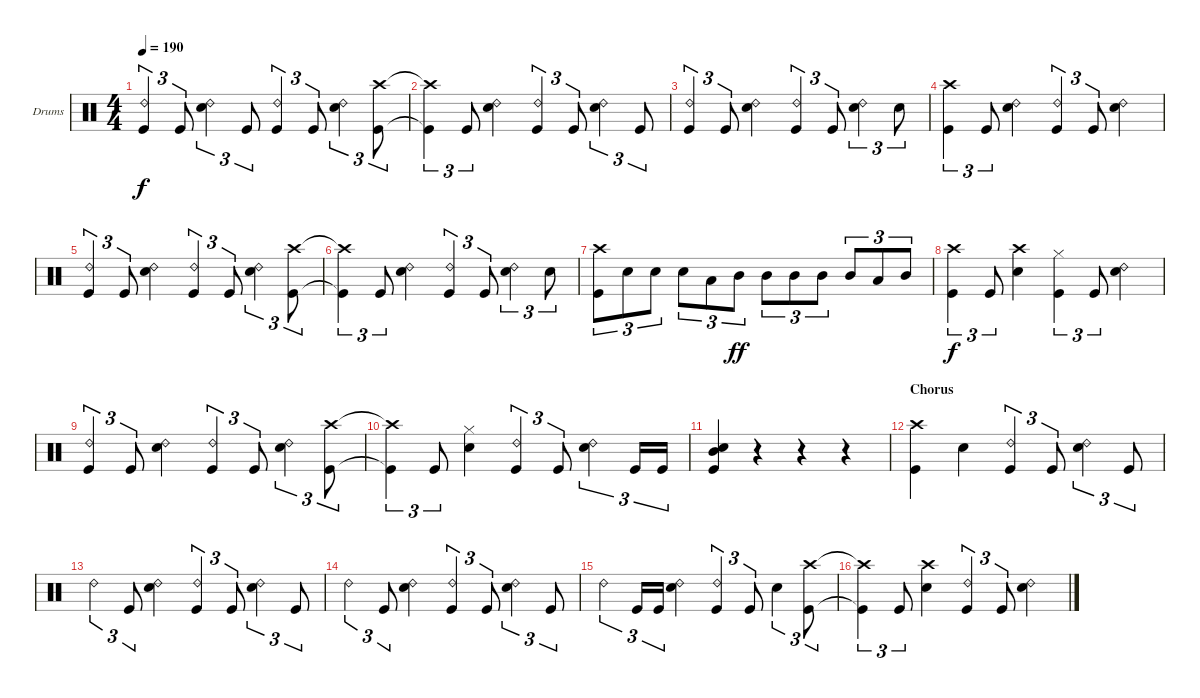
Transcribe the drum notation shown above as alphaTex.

\bracketExtendMode groupsimilarinstruments
\firstSystemTrackNameOrientation horizontal
\otherSystemsTrackNameOrientation horizontal
\track ("Drums" "Drums") {instrument percussion}
\staff {score}
\articulation defaults
\ts (4 4)
\tempo 190
\clef neutral
\ks c
("Kick (hit)" "Ride (bell) 2").4{tu (3 2) dy f} "Kick (hit)".8{tu (3 2)} ("Snare (hit) 2" "Ride (bell) 2").4{tu (3 2)} "Kick (hit)".8{tu (3 2)} ("Kick (hit)" "Ride (bell) 2").4{tu (3 2)} "Kick (hit)".8{tu (3 2)} ("Snare (hit) 2" "Ride (bell) 2").4{tu (3 2)} ("Kick (hit)" "Crash high (hit)").8{tu (3 2)} |
("Kick (hit)"{t} "Crash high (hit)"{t}).4{tu (3 2)} "Kick (hit)".8{tu (3 2)} ("Snare (hit) 2" "Ride (bell) 2").4 ("Kick (hit)" "Ride (bell) 2").4{tu (3 2)} "Kick (hit)".8{tu (3 2)} ("Snare (hit) 2" "Ride (bell) 2").4{tu (3 2)} "Kick (hit)".8{tu (3 2)} |
("Kick (hit)" "Ride (bell) 2").4{tu (3 2)} "Kick (hit)".8{tu (3 2)} ("Snare (hit) 2" "Ride (bell) 2").4 ("Kick (hit)" "Ride (bell) 2").4{tu (3 2)} "Kick (hit)".8{tu (3 2)} ("Snare (hit) 2" "Ride (bell) 2").4{tu (3 2)} "Snare (hit) 2".8{tu (3 2)} |
("Crash high (hit)" "Kick (hit)").4{tu (3 2)} "Kick (hit)".8{tu (3 2)} ("Snare (hit) 2" "Ride (bell) 2").4 ("Kick (hit)" "Ride (bell) 2").4{tu (3 2)} "Kick (hit)".8{tu (3 2)} ("Snare (hit) 2" "Ride (bell) 2").4 |
("Kick (hit)" "Ride (bell) 2").4{tu (3 2)} "Kick (hit)".8{tu (3 2)} ("Snare (hit) 2" "Ride (bell) 2").4 ("Kick (hit)" "Ride (bell) 2").4{tu (3 2)} "Kick (hit)".8{tu (3 2)} ("Snare (hit) 2" "Ride (bell) 2").4{tu (3 2)} ("Kick (hit)" "Crash high (hit)").8{tu (3 2)} |
("Kick (hit)"{t} "Crash high (hit)"{t}).4{tu (3 2)} "Kick (hit)".8{tu (3 2)} ("Snare (hit) 2" "Ride (bell) 2").4 ("Kick (hit)" "Ride (bell) 2").4{tu (3 2)} "Kick (hit)".8{tu (3 2)} ("Snare (hit) 2" "Ride (bell) 2").4{tu (3 2)} "Snare (hit) 2".8{tu (3 2)} |
("Kick (hit)" "Crash high (hit)").8{tu (3 2)} "Snare (hit) 2".8{tu (3 2)} "Snare (hit) 2".8{tu (3 2)} "Snare (hit) 2".8{tu (3 2)} "Low Tom (hit)".8{tu (3 2)} "Mid Tom (hit)".8{tu (3 2) dy ff} "Mid Tom (hit)".8{tu (3 2)} "Mid Tom (hit)".8{tu (3 2)} "Mid Tom (hit)".8{tu (3 2)} "Mid Tom (hit)".8{tu (3 2)} "Low Tom (hit)".8{tu (3 2)} "Mid Tom (hit)".8{tu (3 2)} |
("Crash high (hit)" "Kick (hit)").4{tu (3 2) dy f} "Kick (hit)".8{tu (3 2)} ("Snare (hit) 2" "Crash high (hit)").4 ("Kick (hit)" "Hi-Hat (closed)").4{tu (3 2)} "Kick (hit)".8{tu (3 2)} ("Snare (hit) 2" "Ride (bell) 2").4 |
("Kick (hit)" "Ride (bell) 2").4{tu (3 2)} "Kick (hit)".8{tu (3 2)} ("Snare (hit) 2" "Ride (bell) 2").4 ("Kick (hit)" "Ride (bell) 2").4{tu (3 2)} "Kick (hit)".8{tu (3 2)} ("Snare (hit) 2" "Ride (bell) 2").4{tu (3 2)} ("Kick (hit)" "Crash high (hit)").8{tu (3 2)} |
("Kick (hit)"{t} "Crash high (hit)"{t}).4{tu (3 2)} "Kick (hit)".8{tu (3 2)} ("Snare (hit) 2" "Hi-Hat (closed)").4 ("Kick (hit)" "Ride (bell) 2").4{tu (3 2)} "Kick (hit)".8{tu (3 2)} ("Snare (hit) 2" "Ride (bell) 2").4{tu (3 2)} "Kick (hit)".16{tu (3 2)} "Kick (hit)".16{tu (3 2)} |
("Kick (hit)" "Snare (hit) 2" "Mid Tom (hit)").4 r.4 r.4 r.4 |
\section ("" "Chorus")
("Kick (hit)" "Crash high (hit)").4 "Snare (hit) 2".4 ("Kick (hit)" "Ride (bell) 2").4{tu (3 2)} "Kick (hit)".8{tu (3 2)} ("Snare (hit) 2" "Ride (bell) 2").4{tu (3 2)} "Kick (hit)".8{tu (3 2)} |
"Ride (bell) 2".4{tu (3 2)} "Kick (hit)".8{tu (3 2)} ("Snare (hit) 2" "Ride (bell) 2").4 ("Kick (hit)" "Ride (bell) 2").4{tu (3 2)} "Kick (hit)".8{tu (3 2)} ("Snare (hit) 2" "Ride (bell) 2").4{tu (3 2)} "Kick (hit)".8{tu (3 2)} |
"Ride (bell) 2".4{tu (3 2)} "Kick (hit)".8{tu (3 2)} ("Snare (hit) 2" "Ride (bell) 2").4 ("Kick (hit)" "Ride (bell) 2").4{tu (3 2)} "Kick (hit)".8{tu (3 2)} ("Snare (hit) 2" "Ride (bell) 2").4{tu (3 2)} "Kick (hit)".8{tu (3 2)} |
"Ride (bell) 2".4{tu (3 2)} "Kick (hit)".16{tu (3 2)} "Kick (hit)".16{tu (3 2)} ("Snare (hit) 2" "Ride (bell) 2").4 ("Kick (hit)" "Ride (bell) 2").4{tu (3 2)} "Kick (hit)".8{tu (3 2)} "Snare (hit) 2".4{tu (3 2)} ("Kick (hit)" "Crash high (hit)").8{tu (3 2)} |
("Kick (hit)"{t} "Crash high (hit)"{t}).4{tu (3 2)} "Kick (hit)".8{tu (3 2)} ("Snare (hit) 2" "Crash high (hit)").4 ("Kick (hit)" "Ride (bell) 2").4{tu (3 2)} "Kick (hit)".8{tu (3 2)} ("Snare (hit) 2" "Ride (bell) 2").4
